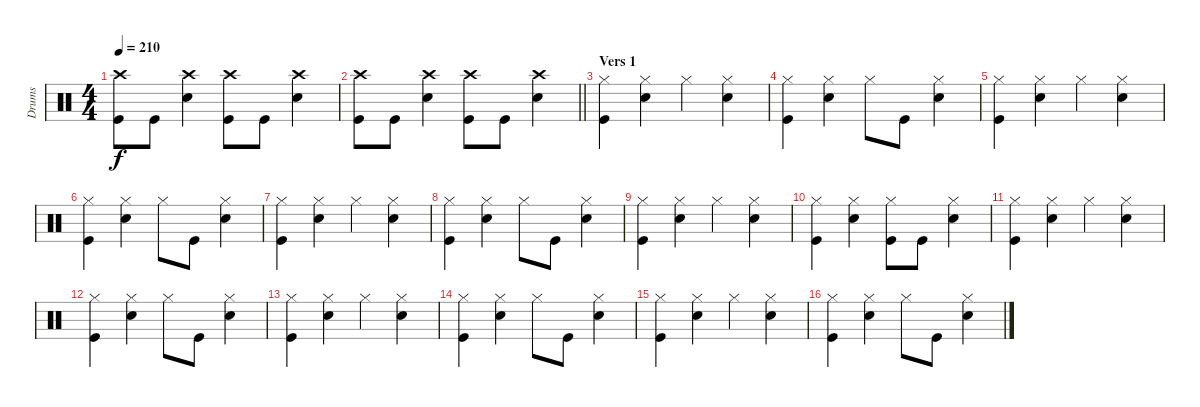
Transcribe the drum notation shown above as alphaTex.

\track ("Drums" "Drums") {instrument percussion}
\staff {score}
\articulation defaults
\ts (4 4)
\tempo 210
\clef neutral
\ks c
("Crash high (hit)" "Kick (hit)").8{dy f} "Kick (hit)".8 ("Crash high (hit)" "Snare (hit) 2").4 ("Crash high (hit)" "Kick (hit)").8 "Kick (hit)".8 ("Crash high (hit)" "Snare (hit) 2").4 |
\barLineRight lightlight
("Crash high (hit)" "Kick (hit)").8 "Kick (hit)".8 ("Crash high (hit)" "Snare (hit) 2").4 ("Crash high (hit)" "Kick (hit)").8 "Kick (hit)".8 ("Crash high (hit)" "Snare (hit) 2").4 |
\section ("" "Vers 1")
("Hi-Hat (closed)" "Kick (hit)").4 ("Hi-Hat (closed)" "Snare (hit) 2").4 "Hi-Hat (closed)".4 ("Hi-Hat (closed)" "Snare (hit) 2").4 |
("Hi-Hat (closed)" "Kick (hit)").4 ("Hi-Hat (closed)" "Snare (hit) 2").4 "Hi-Hat (closed)".8 "Kick (hit)".8 ("Hi-Hat (closed)" "Snare (hit) 2").4 |
("Hi-Hat (closed)" "Kick (hit)").4 ("Hi-Hat (closed)" "Snare (hit) 2").4 "Hi-Hat (closed)".4 ("Hi-Hat (closed)" "Snare (hit) 2").4 |
("Hi-Hat (closed)" "Kick (hit)").4 ("Hi-Hat (closed)" "Snare (hit) 2").4 "Hi-Hat (closed)".8 "Kick (hit)".8 ("Hi-Hat (closed)" "Snare (hit) 2").4 |
("Hi-Hat (closed)" "Kick (hit)").4 ("Hi-Hat (closed)" "Snare (hit) 2").4 "Hi-Hat (closed)".4 ("Hi-Hat (closed)" "Snare (hit) 2").4 |
("Hi-Hat (closed)" "Kick (hit)").4 ("Hi-Hat (closed)" "Snare (hit) 2").4 "Hi-Hat (closed)".8 "Kick (hit)".8 ("Hi-Hat (closed)" "Snare (hit) 2").4 |
("Hi-Hat (closed)" "Kick (hit)").4 ("Hi-Hat (closed)" "Snare (hit) 2").4 "Hi-Hat (closed)".4 ("Hi-Hat (closed)" "Snare (hit) 2").4 |
("Hi-Hat (closed)" "Kick (hit)").4 ("Hi-Hat (closed)" "Snare (hit) 2").4 ("Hi-Hat (closed)" "Kick (hit)").8 "Kick (hit)".8 ("Hi-Hat (closed)" "Snare (hit) 2").4 |
("Hi-Hat (closed)" "Kick (hit)").4 ("Hi-Hat (closed)" "Snare (hit) 2").4 "Hi-Hat (closed)".4 ("Hi-Hat (closed)" "Snare (hit) 2").4 |
("Hi-Hat (closed)" "Kick (hit)").4 ("Hi-Hat (closed)" "Snare (hit) 2").4 "Hi-Hat (closed)".8 "Kick (hit)".8 ("Hi-Hat (closed)" "Snare (hit) 2").4 |
("Hi-Hat (closed)" "Kick (hit)").4 ("Hi-Hat (closed)" "Snare (hit) 2").4 "Hi-Hat (closed)".4 ("Hi-Hat (closed)" "Snare (hit) 2").4 |
("Hi-Hat (closed)" "Kick (hit)").4 ("Hi-Hat (closed)" "Snare (hit) 2").4 "Hi-Hat (closed)".8 "Kick (hit)".8 ("Hi-Hat (closed)" "Snare (hit) 2").4 |
("Hi-Hat (closed)" "Kick (hit)").4 ("Hi-Hat (closed)" "Snare (hit) 2").4 "Hi-Hat (closed)".4 ("Hi-Hat (closed)" "Snare (hit) 2").4 |
("Hi-Hat (closed)" "Kick (hit)").4 ("Hi-Hat (closed)" "Snare (hit) 2").4 "Hi-Hat (closed)".8 "Kick (hit)".8 ("Hi-Hat (closed)" "Snare (hit) 2").4
